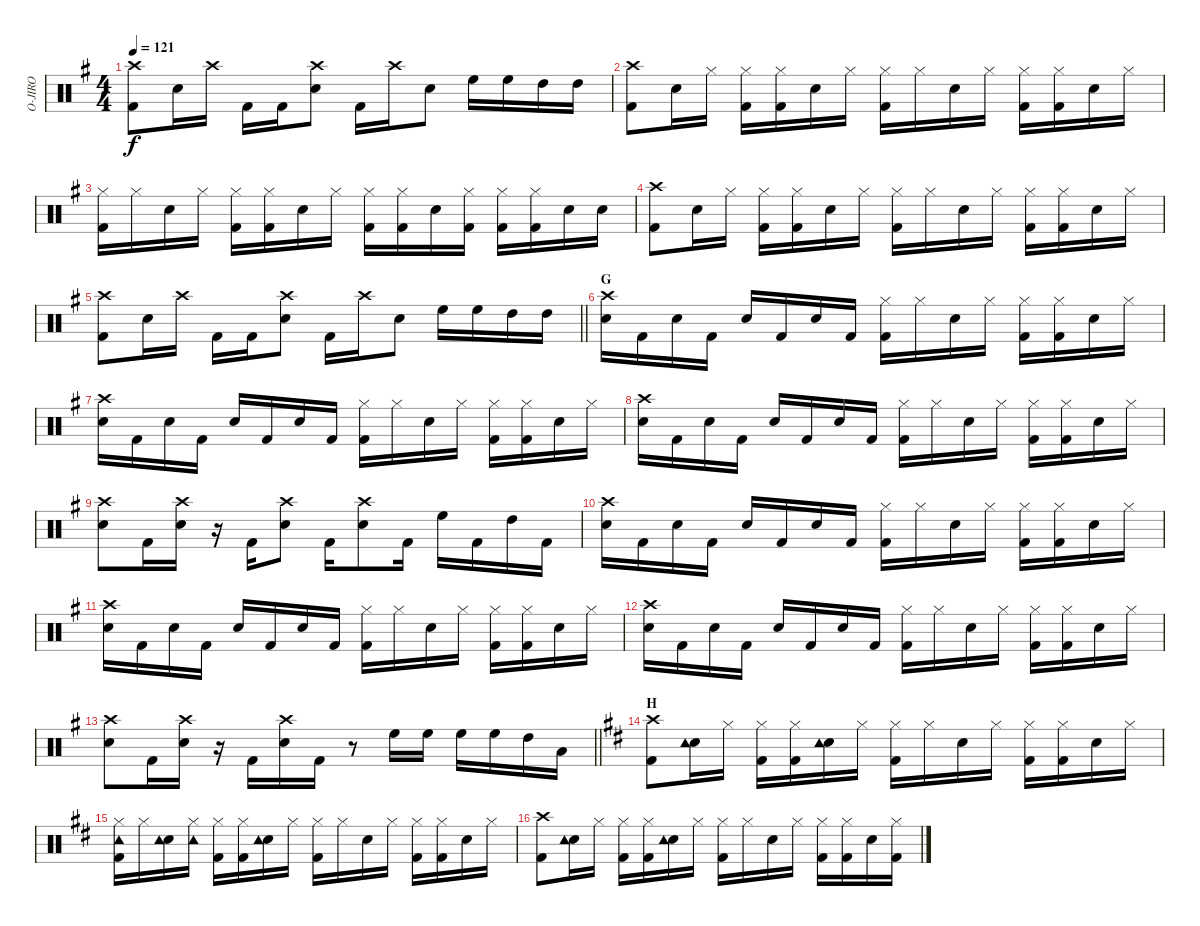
\track ("O-JIRO" "O-JIRO") {instrument percussion}
\staff {score}
\articulation defaults
\ts (4 4)
\tempo 121
\clef neutral
\ks g
("Crash high (hit)" "Kick (hit) 2").8{dy f} "Snare (hit) 2".16 "Crash high (hit)".16 "Kick (hit) 2".16 "Kick (hit) 2".16 ("Crash high (hit)" "Snare (hit) 2").8 "Kick (hit) 2".16 "Crash high (hit)".16 "Snare (hit) 2".8 "High Floor Tom (hit)".16 "High Floor Tom (hit)".16 "High Tom (hit)".16 "High Tom (hit)".16 |
("Crash high (hit)" "Kick (hit) 2").8 "Snare (hit) 2".16 "Hi-Hat (closed)".16 ("Hi-Hat (closed)" "Kick (hit) 2").16 ("Hi-Hat (closed)" "Kick (hit) 2").16 "Snare (hit) 2".16 "Hi-Hat (closed)".16 ("Hi-Hat (closed)" "Kick (hit) 2").16 "Hi-Hat (closed)".16 "Snare (hit) 2".16 "Hi-Hat (closed)".16 ("Hi-Hat (closed)" "Kick (hit) 2").16 ("Hi-Hat (closed)" "Kick (hit) 2").16 "Snare (hit) 2".16 "Hi-Hat (closed)".16 |
("Hi-Hat (closed)" "Kick (hit) 2").16 "Hi-Hat (closed)".16 "Snare (hit) 2".16 "Hi-Hat (closed)".16 ("Hi-Hat (closed)" "Kick (hit) 2").16 ("Hi-Hat (closed)" "Kick (hit) 2").16 "Snare (hit) 2".16 "Hi-Hat (closed)".16 ("Hi-Hat (closed)" "Kick (hit) 2").16 ("Hi-Hat (closed)" "Kick (hit) 2").16 "Snare (hit) 2".16 ("Hi-Hat (closed)" "Kick (hit) 2").16 ("Hi-Hat (closed)" "Kick (hit) 2").16 ("Hi-Hat (closed)" "Kick (hit) 2").16 "Snare (hit) 2".16 "Snare (hit) 2".16 |
("Crash high (hit)" "Kick (hit) 2").8 "Snare (hit) 2".16 "Hi-Hat (closed)".16 ("Hi-Hat (closed)" "Kick (hit) 2").16 ("Hi-Hat (closed)" "Kick (hit) 2").16 "Snare (hit) 2".16 "Hi-Hat (closed)".16 ("Hi-Hat (closed)" "Kick (hit) 2").16 "Hi-Hat (closed)".16 "Snare (hit) 2".16 "Hi-Hat (closed)".16 ("Hi-Hat (closed)" "Kick (hit) 2").16 ("Hi-Hat (closed)" "Kick (hit) 2").16 "Snare (hit) 2".16 "Hi-Hat (closed)".16 |
\barLineRight lightlight
("Crash high (hit)" "Kick (hit) 2").8 "Snare (hit) 2".16 "Crash high (hit)".16 "Kick (hit) 2".16 "Kick (hit) 2".16 ("Crash high (hit)" "Snare (hit) 2").8 "Kick (hit) 2".16 "Crash high (hit)".16 "Snare (hit) 2".8 "High Floor Tom (hit)".16 "High Floor Tom (hit)".16 "High Tom (hit)".16 "High Tom (hit)".16 |
\section ("" "G")
("Crash high (hit)" "Snare (hit) 2").16 "Kick (hit) 2".16 "Snare (hit) 2".16 "Kick (hit) 2".16 "Snare (hit) 2".16 "Kick (hit) 2".16 "Snare (hit) 2".16 "Kick (hit) 2".16 ("Hi-Hat (closed)" "Kick (hit) 2").16 "Hi-Hat (closed)".16 "Snare (hit) 2".16 "Hi-Hat (closed)".16 ("Hi-Hat (closed)" "Kick (hit) 2").16 ("Hi-Hat (closed)" "Kick (hit) 2").16 "Snare (hit) 2".16 "Hi-Hat (closed)".16 |
("Crash high (hit)" "Snare (hit) 2").16 "Kick (hit) 2".16 "Snare (hit) 2".16 "Kick (hit) 2".16 "Snare (hit) 2".16 "Kick (hit) 2".16 "Snare (hit) 2".16 "Kick (hit) 2".16 ("Hi-Hat (closed)" "Kick (hit) 2").16 "Hi-Hat (closed)".16 "Snare (hit) 2".16 "Hi-Hat (closed)".16 ("Hi-Hat (closed)" "Kick (hit) 2").16 ("Hi-Hat (closed)" "Kick (hit) 2").16 "Snare (hit) 2".16 "Hi-Hat (closed)".16 |
("Crash high (hit)" "Snare (hit) 2").16 "Kick (hit) 2".16 "Snare (hit) 2".16 "Kick (hit) 2".16 "Snare (hit) 2".16 "Kick (hit) 2".16 "Snare (hit) 2".16 "Kick (hit) 2".16 ("Hi-Hat (closed)" "Kick (hit) 2").16 "Hi-Hat (closed)".16 "Snare (hit) 2".16 "Hi-Hat (closed)".16 ("Hi-Hat (closed)" "Kick (hit) 2").16 ("Hi-Hat (closed)" "Kick (hit) 2").16 "Snare (hit) 2".16 "Hi-Hat (closed)".16 |
("Crash high (hit)" "Snare (hit) 2").8 "Kick (hit) 2".16 ("Crash high (hit)" "Snare (hit) 2").16 r.16 "Kick (hit) 2".16 ("Crash high (hit)" "Snare (hit) 2").8 "Kick (hit) 2".16 ("Crash high (hit)" "Snare (hit) 2").8 "Kick (hit) 2".16 "High Floor Tom (hit)".16 "Kick (hit) 2".16 "High Tom (hit)".16 "Kick (hit) 2".16 |
("Crash high (hit)" "Snare (hit) 2").16 "Kick (hit) 2".16 "Snare (hit) 2".16 "Kick (hit) 2".16 "Snare (hit) 2".16 "Kick (hit) 2".16 "Snare (hit) 2".16 "Kick (hit) 2".16 ("Hi-Hat (closed)" "Kick (hit) 2").16 "Hi-Hat (closed)".16 "Snare (hit) 2".16 "Hi-Hat (closed)".16 ("Hi-Hat (closed)" "Kick (hit) 2").16 ("Hi-Hat (closed)" "Kick (hit) 2").16 "Snare (hit) 2".16 "Hi-Hat (closed)".16 |
("Crash high (hit)" "Snare (hit) 2").16 "Kick (hit) 2".16 "Snare (hit) 2".16 "Kick (hit) 2".16 "Snare (hit) 2".16 "Kick (hit) 2".16 "Snare (hit) 2".16 "Kick (hit) 2".16 ("Hi-Hat (closed)" "Kick (hit) 2").16 "Hi-Hat (closed)".16 "Snare (hit) 2".16 "Hi-Hat (closed)".16 ("Hi-Hat (closed)" "Kick (hit) 2").16 ("Hi-Hat (closed)" "Kick (hit) 2").16 "Snare (hit) 2".16 "Hi-Hat (closed)".16 |
("Crash high (hit)" "Snare (hit) 2").16 "Kick (hit) 2".16 "Snare (hit) 2".16 "Kick (hit) 2".16 "Snare (hit) 2".16 "Kick (hit) 2".16 "Snare (hit) 2".16 "Kick (hit) 2".16 ("Hi-Hat (closed)" "Kick (hit) 2").16 "Hi-Hat (closed)".16 "Snare (hit) 2".16 "Hi-Hat (closed)".16 ("Hi-Hat (closed)" "Kick (hit) 2").16 ("Hi-Hat (closed)" "Kick (hit) 2").16 "Snare (hit) 2".16 "Hi-Hat (closed)".16 |
\barLineRight lightlight
("Crash high (hit)" "Snare (hit) 2").8 "Kick (hit) 2".16 ("Crash high (hit)" "Snare (hit) 2").16 r.16 "Kick (hit) 2".16 ("Crash high (hit)" "Snare (hit) 2").16 "Kick (hit) 2".16 r.8 "High Floor Tom (hit)".16 "High Floor Tom (hit)".16 "High Floor Tom (hit)".16 "High Floor Tom (hit)".16 "High Tom (hit)".16 "Low Tom (hit)".16 |
\section ("" "H")
\ks d
("Crash high (hit)" "Kick (hit) 2").8 ("Snare (hit) 2" "Tambourine (hit)").16 "Hi-Hat (closed)".16 ("Hi-Hat (closed)" "Kick (hit) 2").16 ("Hi-Hat (closed)" "Kick (hit) 2").16 ("Snare (hit) 2" "Tambourine (hit)").16 "Hi-Hat (closed)".16 ("Hi-Hat (closed)" "Kick (hit) 2").16 "Hi-Hat (closed)".16 "Snare (hit) 2".16 "Hi-Hat (closed)".16 ("Hi-Hat (closed)" "Kick (hit) 2").16 ("Hi-Hat (closed)" "Kick (hit) 2").16 "Snare (hit) 2".16 "Hi-Hat (closed)".16 |
("Hi-Hat (closed)" "Kick (hit) 2" "Tambourine (hit)").16 "Hi-Hat (closed)".16 ("Snare (hit) 2" "Tambourine (hit)").16 ("Hi-Hat (closed)" "Tambourine (hit)").16 ("Hi-Hat (closed)" "Kick (hit) 2").16 ("Hi-Hat (closed)" "Kick (hit) 2").16 ("Snare (hit) 2" "Tambourine (hit)").16 "Hi-Hat (closed)".16 ("Hi-Hat (closed)" "Kick (hit) 2").16 "Hi-Hat (closed)".16 "Snare (hit) 2".16 "Hi-Hat (closed)".16 ("Hi-Hat (closed)" "Kick (hit) 2").16 ("Hi-Hat (closed)" "Kick (hit) 2").16 "Snare (hit) 2".16 "Hi-Hat (closed)".16 |
("Crash high (hit)" "Kick (hit) 2").8 ("Snare (hit) 2" "Tambourine (hit)").16 "Hi-Hat (closed)".16 ("Hi-Hat (closed)" "Kick (hit) 2").16 ("Hi-Hat (closed)" "Kick (hit) 2").16 ("Snare (hit) 2" "Tambourine (hit)").16 "Hi-Hat (closed)".16 ("Hi-Hat (closed)" "Kick (hit) 2").16 "Hi-Hat (closed)".16 "Snare (hit) 2".16 "Hi-Hat (closed)".16 ("Hi-Hat (closed)" "Kick (hit) 2").16 ("Hi-Hat (closed)" "Kick (hit) 2").16 "Snare (hit) 2".16 ("Hi-Hat (closed)" "Kick (hit) 2").16
